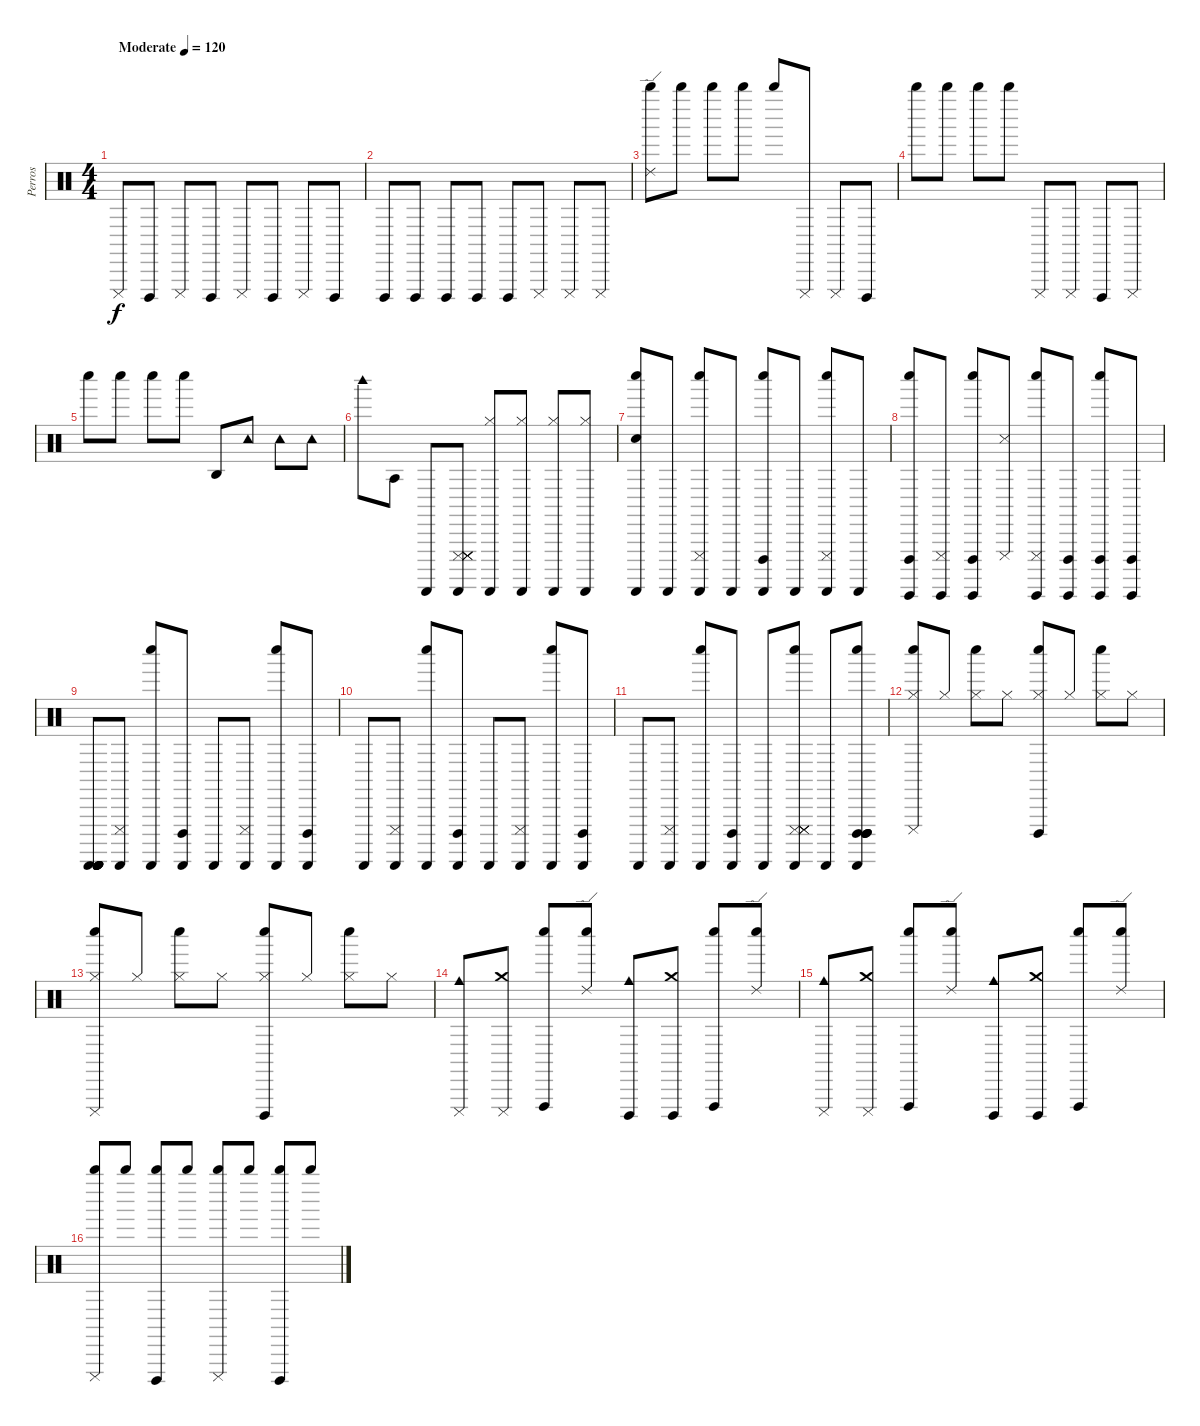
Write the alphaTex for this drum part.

\track ("Perros" "Perros") {instrument percussion}
\staff {score}
\articulation defaults
\ts (4 4)
\tempo (120 "Moderate")
\clef neutral
\ks c "Cuica (mute)".8{dy f} "Cuica (open)".8 "Cuica (mute)".8 "Cuica (open)".8 "Cuica (mute)".8 "Cuica (open)".8 "Cuica (mute)".8 "Cuica (open)".8
|
"Cuica (open)".8 "Cuica (open)".8 "Cuica (open)".8 "Cuica (open)".8 "Cuica (open)".8 "Cuica (mute)".8 "Cuica (mute)".8 "Cuica (mute)".8 |
("Ride (edge) 2" "Whistle high (hit)").8 "Whistle high (hit)".8 "Whistle high (hit)".8 "Whistle high (hit)".8 "Whistle high (hit)".8 "Cuica (mute)".8 "Cuica (mute)".8 "Cuica (open)".8 |
"Whistle high (hit)".8 "Whistle high (hit)".8 "Whistle high (hit)".8 "Whistle high (hit)".8 "Cuica (mute)".8 "Cuica (mute)".8 "Cuica (open)".8 "Cuica (mute)".8 |
"Whistle low (hit)".8 "Whistle low (hit)".8 "Whistle low (hit)".8 "Whistle low (hit)".8 "Agogo high (hit)".8 "Tambourine (hit)".8 "Tambourine (hit)".8 "Tambourine (hit)".8 |
"Woodblock high (hit)".8 "Agogo tow (hit)".8 "Guiro (scrap-return)".8 ("Cuica (mute)" "Cuica (mute)" "Cuica (mute)" "Cuica (mute)" "Cuica (mute)" "Guiro (scrap-return)").8 ("Hi-Hat (closed)" "Guiro (scrap-return)").8 ("Hi-Hat (closed)" "Guiro (scrap-return)").8 ("Hi-Hat (closed)" "Guiro (scrap-return)").8 ("Hi-Hat (closed)" "Guiro (scrap-return)").8 |
("Snare (hit)" "Whistle low (hit)" "Guiro (scrap-return)").8 "Guiro (scrap-return)".8 ("Cuica (mute)" "Whistle low (hit)" "Guiro (scrap-return)").8 "Guiro (scrap-return)".8 ("Cuica (open)" "Whistle low (hit)" "Guiro (scrap-return)").8 "Guiro (scrap-return)".8 ("Cuica (mute)" "Whistle low (hit)" "Guiro (scrap-return)").8 "Guiro (scrap-return)".8 |
("Cuica (open)" "Whistle low (hit)" "Guiro (hit)").8 ("Cuica (mute)" "Guiro (hit)").8 ("Cuica (open)" "Whistle low (hit)" "Guiro (hit)").8 ("Cuica (mute)" "Snare (side stick) 3").8 ("Cuica (mute)" "Whistle low (hit)" "Guiro (hit)").8 ("Cuica (open)" "Guiro (hit)").8 ("Cuica (open)" "Whistle low (hit)" "Guiro (hit)").8 ("Cuica (open)" "Guiro (hit)").8 |
("Guiro (scrap-return)" "Guiro (scrap-return)" "Guiro (scrap-return)" "Guiro (scrap-return)" "Guiro (scrap-return)" "Guiro (scrap-return)").8 ("Cuica (mute)" "Guiro (scrap-return)").8 ("Whistle low (hit)" "Guiro (scrap-return)").8 ("Cuica (open)" "Guiro (scrap-return)").8 "Guiro (scrap-return)".8 ("Cuica (mute)" "Guiro (scrap-return)").8 ("Whistle low (hit)" "Guiro (scrap-return)").8 ("Cuica (open)" "Guiro (scrap-return)").8 |
"Guiro (scrap-return)".8 ("Cuica (mute)" "Guiro (scrap-return)").8 ("Whistle low (hit)" "Guiro (scrap-return)").8 ("Cuica (open)" "Guiro (scrap-return)").8 "Guiro (scrap-return)".8 ("Cuica (mute)" "Guiro (scrap-return)").8 ("Whistle low (hit)" "Guiro (scrap-return)").8 ("Cuica (open)" "Guiro (scrap-return)").8 |
"Guiro (scrap-return)".8 ("Cuica (mute)" "Guiro (scrap-return)").8 ("Whistle low (hit)" "Guiro (scrap-return)").8 ("Cuica (open)" "Guiro (scrap-return)").8 "Guiro (scrap-return)".8 ("Cuica (mute)" "Cuica (mute)" "Cuica (mute)" "Whistle low (hit)" "Cuica (mute)" "Guiro (scrap-return)").8 "Guiro (scrap-return)".8 ("Cuica (open)" "Cuica (open)" "Cuica (open)" "Whistle low (hit)" "Cuica (open)" "Guiro (scrap-return)").8 |
("Whistle low (hit)" "Cuica (mute)" "Hi-Hat (closed)").8 "Hi-Hat (closed)".8 ("Whistle low (hit)" "Hi-Hat (closed)").8 "Hi-Hat (closed)".8 ("Whistle low (hit)" "Cuica (open)" "Hi-Hat (closed)").8 "Hi-Hat (closed)".8 ("Whistle low (hit)" "Hi-Hat (closed)").8 "Hi-Hat (closed)".8 |
("Whistle low (hit)" "Cuica (mute)" "Hi-Hat (closed)").8 "Hi-Hat (closed)".8 ("Whistle low (hit)" "Hi-Hat (closed)").8 "Hi-Hat (closed)".8 ("Whistle low (hit)" "Cuica (open)" "Hi-Hat (closed)").8 "Hi-Hat (closed)".8 ("Whistle low (hit)" "Hi-Hat (closed)").8 "Hi-Hat (closed)".8 |
("Cuica (mute)" "Cowbell medium (hit)").8 ("Cuica (mute)" "Crash medium (hit)").8 ("Whistle low (hit)" "Vibraslap (hit)").8 ("Whistle low (hit)" "Ride (edge) 2").8 ("Cuica (open)" "Cowbell medium (hit)").8 ("Cuica (open)" "Crash medium (hit)").8 ("Whistle low (hit)" "Vibraslap (hit)").8 ("Whistle low (hit)" "Ride (edge) 2").8 |
("Cuica (mute)" "Cowbell medium (hit)").8 ("Cuica (mute)" "Crash medium (hit)").8 ("Whistle low (hit)" "Vibraslap (hit)").8 ("Whistle low (hit)" "Ride (edge) 2").8 ("Cuica (open)" "Cowbell medium (hit)").8 ("Cuica (open)" "Crash medium (hit)").8 ("Whistle low (hit)" "Vibraslap (hit)").8 ("Whistle low (hit)" "Ride (edge) 2").8 |
("Whistle high (hit)" "Cuica (mute)").8 "Whistle high (hit)".8 ("Whistle high (hit)" "Cuica (open)").8 "Whistle high (hit)".8 ("Whistle high (hit)" "Cuica (mute)").8 "Whistle high (hit)".8 ("Whistle high (hit)" "Cuica (open)").8 "Whistle high (hit)".8
